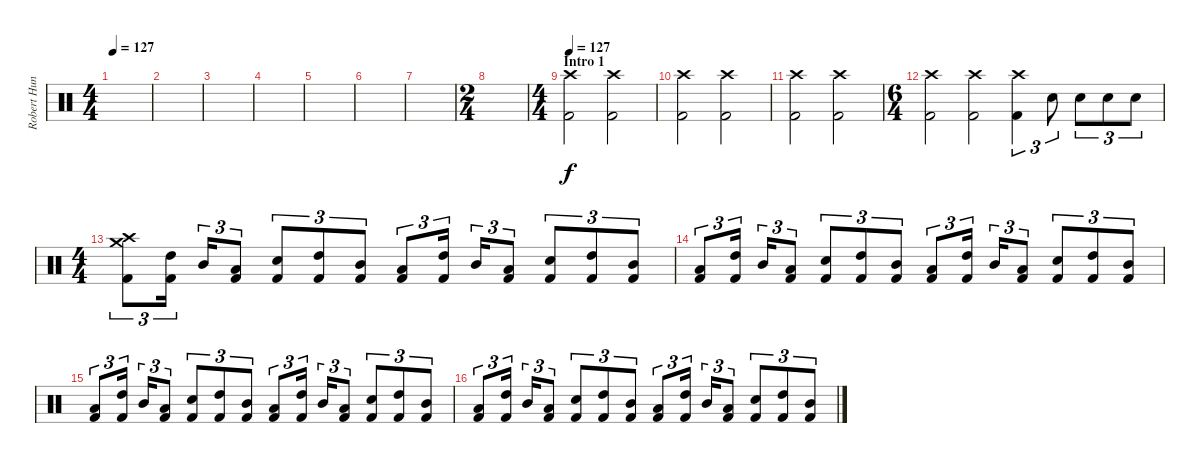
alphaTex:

\track ("Robert Hunecke" "Robert Hun") {instrument percussion}
\staff {score}
\articulation defaults
\ts (4 4)
\section ("" "")
\tempo 127
\clef neutral
\ks c
|
|
|
|
|
|
|
\ts (2 4)
|
\ts (4 4)
\section ("" "Intro 1")
\tempo 127
("Kick (hit) 2" "Crash high (hit)").2 ("Kick (hit) 2" "Crash high (hit)").2 |
("Kick (hit) 2" "Crash high (hit)").2 ("Kick (hit) 2" "Crash high (hit)").2 |
("Kick (hit) 2" "Crash high (hit)").2 ("Kick (hit) 2" "Crash high (hit)").2 |
\ts (6 4)
("Kick (hit) 2" "Crash high (hit)").2 ("Kick (hit) 2" "Crash high (hit)").2 ("Kick (hit) 2" "Crash high (hit)").4{tu (3 2)} "Electric Snare (hit)".8{tu (3 2)} "Electric Snare (hit)".8{tu (3 2)} "Electric Snare (hit)".8{tu (3 2)} "Electric Snare (hit)".8{tu (3 2)} |
\ts (4 4)
("Kick (hit) 2" "Crash high (hit)" "Crash medium (hit)").8{tu (3 2)} ("Kick (hit) 2" "High Tom (hit)").16{tu (3 2)} "Mid Tom (hit)".16{tu (3 2)} ("Kick (hit) 2" "Low Tom (hit)").8{tu (3 2)} ("Kick (hit) 2" "Electric Snare (hit)").8{tu (3 2)} ("Kick (hit) 2" "High Tom (hit)").8{tu (3 2)} ("Kick (hit) 2" "Mid Tom (hit)").8{tu (3 2)} ("Kick (hit) 2" "Low Tom (hit)").8{tu (3 2)} ("Kick (hit) 2" "High Tom (hit)").16{tu (3 2)} "Mid Tom (hit)".16{tu (3 2)} ("Kick (hit) 2" "Low Tom (hit)").8{tu (3 2)} ("Kick (hit) 2" "Electric Snare (hit)").8{tu (3 2)} ("Kick (hit) 2" "High Tom (hit)").8{tu (3 2)} ("Kick (hit) 2" "Mid Tom (hit)").8{tu (3 2)} |
("Kick (hit) 2" "Low Tom (hit)").8{tu (3 2)} ("Kick (hit) 2" "High Tom (hit)").16{tu (3 2)} "Mid Tom (hit)".16{tu (3 2)} ("Kick (hit) 2" "Low Tom (hit)").8{tu (3 2)} ("Kick (hit) 2" "Electric Snare (hit)").8{tu (3 2)} ("Kick (hit) 2" "High Tom (hit)").8{tu (3 2)} ("Kick (hit) 2" "Mid Tom (hit)").8{tu (3 2)} ("Kick (hit) 2" "Low Tom (hit)").8{tu (3 2)} ("Kick (hit) 2" "High Tom (hit)").16{tu (3 2)} "Mid Tom (hit)".16{tu (3 2)} ("Kick (hit) 2" "Low Tom (hit)").8{tu (3 2)} ("Kick (hit) 2" "Electric Snare (hit)").8{tu (3 2)} ("Kick (hit) 2" "High Tom (hit)").8{tu (3 2)} ("Kick (hit) 2" "Mid Tom (hit)").8{tu (3 2)} |
("Kick (hit) 2" "Low Tom (hit)").8{tu (3 2)} ("Kick (hit) 2" "High Tom (hit)").16{tu (3 2)} "Mid Tom (hit)".16{tu (3 2)} ("Kick (hit) 2" "Low Tom (hit)").8{tu (3 2)} ("Kick (hit) 2" "Electric Snare (hit)").8{tu (3 2)} ("Kick (hit) 2" "High Tom (hit)").8{tu (3 2)} ("Kick (hit) 2" "Mid Tom (hit)").8{tu (3 2)} ("Kick (hit) 2" "Low Tom (hit)").8{tu (3 2)} ("Kick (hit) 2" "High Tom (hit)").16{tu (3 2)} "Mid Tom (hit)".16{tu (3 2)} ("Kick (hit) 2" "Low Tom (hit)").8{tu (3 2)} ("Kick (hit) 2" "Electric Snare (hit)").8{tu (3 2)} ("Kick (hit) 2" "High Tom (hit)").8{tu (3 2)} ("Kick (hit) 2" "Mid Tom (hit)").8{tu (3 2)} |
("Kick (hit) 2" "Low Tom (hit)").8{tu (3 2)} ("Kick (hit) 2" "High Tom (hit)").16{tu (3 2)} "Mid Tom (hit)".16{tu (3 2)} ("Kick (hit) 2" "Low Tom (hit)").8{tu (3 2)} ("Kick (hit) 2" "Electric Snare (hit)").8{tu (3 2)} ("Kick (hit) 2" "High Tom (hit)").8{tu (3 2)} ("Kick (hit) 2" "Mid Tom (hit)").8{tu (3 2)} ("Kick (hit) 2" "Low Tom (hit)").8{tu (3 2)} ("Kick (hit) 2" "High Tom (hit)").16{tu (3 2)} "Mid Tom (hit)".16{tu (3 2)} ("Kick (hit) 2" "Low Tom (hit)").8{tu (3 2)} ("Kick (hit) 2" "Electric Snare (hit)").8{tu (3 2)} ("Kick (hit) 2" "High Tom (hit)").8{tu (3 2)} ("Kick (hit) 2" "Mid Tom (hit)").8{tu (3 2)}
